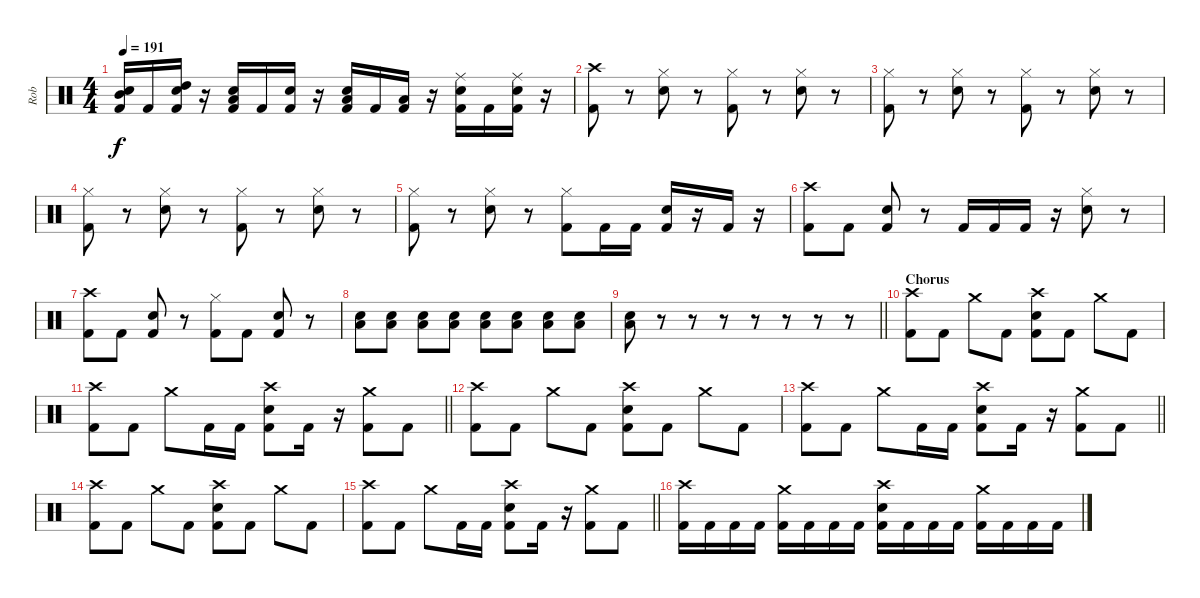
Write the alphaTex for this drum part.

\track ("Rob" "Rob") {instrument percussion}
\staff {score}
\articulation defaults
\ts (4 4)
\tempo 191
\clef neutral
\ks c
("Kick (hit) 2" "Snare (hit) 2" "Mid Tom (hit)").16{dy f} "Kick (hit) 2".16 ("Kick (hit) 2" "Snare (hit) 2" "High Tom (hit)").16 r.16 ("Kick (hit) 2" "Snare (hit) 2" "Low Tom (hit)").16 "Kick (hit) 2".16 ("Kick (hit) 2" "Snare (hit) 2").16 r.16 ("Kick (hit) 2" "Snare (hit) 2" "Low Tom (hit)").16 "Kick (hit) 2".16 ("Kick (hit) 2" "Low Tom (hit)").16 r.16 ("Kick (hit) 2" "Ride (middle)" "Snare (hit) 2").16 "Kick (hit) 2".16 ("Kick (hit) 2" "Ride (middle)" "Snare (hit) 2").16 r.16 |
("Crash high (hit)" "Kick (hit) 2").8 r.8 ("Hi-Hat (closed)" "Snare (hit) 2").8 r.8 ("Hi-Hat (closed)" "Kick (hit) 2").8 r.8 ("Hi-Hat (closed)" "Snare (hit) 2").8 r.8 |
("Hi-Hat (closed)" "Kick (hit) 2").8 r.8 ("Hi-Hat (closed)" "Snare (hit) 2").8 r.8 ("Hi-Hat (closed)" "Kick (hit) 2").8 r.8 ("Hi-Hat (closed)" "Snare (hit) 2").8 r.8 |
("Hi-Hat (closed)" "Kick (hit) 2").8 r.8 ("Hi-Hat (closed)" "Snare (hit) 2").8 r.8 ("Hi-Hat (closed)" "Kick (hit) 2").8 r.8 ("Hi-Hat (closed)" "Snare (hit) 2").8 r.8 |
("Hi-Hat (closed)" "Kick (hit) 2").8 r.8 ("Hi-Hat (closed)" "Snare (hit) 2").8 r.8 ("Hi-Hat (closed)" "Kick (hit) 2").8 "Kick (hit) 2".16 "Kick (hit) 2".16 ("Kick (hit) 2" "Snare (hit) 2").16 r.16 "Kick (hit) 2".16 r.16 |
("Crash high (hit)" "Kick (hit) 2").8 "Kick (hit) 2".8 ("Snare (hit) 2" "Kick (hit) 2").8 r.8 "Kick (hit) 2".16 "Kick (hit) 2".16 "Kick (hit) 2".16 r.16 ("Hi-Hat (closed)" "Snare (hit) 2").8 r.8 |
("Crash high (hit)" "Kick (hit) 2").8 "Kick (hit) 2".8 ("Snare (hit) 2" "Kick (hit) 2").8 r.8 ("Hi-Hat (closed)" "Kick (hit) 2").8 "Kick (hit) 2".8 ("Snare (hit) 2" "Kick (hit) 2").8 r.8 |
("Snare (hit) 2" "Low Tom (hit)").8 ("Snare (hit) 2" "Low Tom (hit)").8 ("Snare (hit) 2" "Low Tom (hit)").8 ("Snare (hit) 2" "Low Tom (hit)").8 ("Snare (hit) 2" "Low Tom (hit)").8 ("Snare (hit) 2" "Low Tom (hit)").8 ("Snare (hit) 2" "Low Tom (hit)").8 ("Snare (hit) 2" "Low Tom (hit)").8 |
\barLineRight lightlight
("Snare (hit) 2" "Low Tom (hit)").8 r.8 r.8 r.8 r.8 r.8 r.8 r.8 |
\section ("" "Chorus")
("Crash high (hit)" "Kick (hit) 2").8 "Kick (hit) 2".8 "Crash medium (hit)".8 "Kick (hit) 2".8 ("Snare (hit) 2" "Kick (hit) 2" "Crash high (hit)").8 "Kick (hit) 2".8 "Crash medium (hit)".8 "Kick (hit) 2".8 |
\barLineRight lightlight
("Crash high (hit)" "Kick (hit) 2").8 "Kick (hit) 2".8 "Crash medium (hit)".8 "Kick (hit) 2".16 "Kick (hit) 2".16 ("Crash high (hit)" "Kick (hit) 2" "Snare (hit) 2").8 "Kick (hit) 2".16 r.16 ("Crash medium (hit)" "Kick (hit) 2").8 "Kick (hit) 2".8 |
("Crash high (hit)" "Kick (hit) 2").8 "Kick (hit) 2".8 "Crash medium (hit)".8 "Kick (hit) 2".8 ("Snare (hit) 2" "Kick (hit) 2" "Crash high (hit)").8 "Kick (hit) 2".8 "Crash medium (hit)".8 "Kick (hit) 2".8 |
\barLineRight lightlight
("Crash high (hit)" "Kick (hit) 2").8 "Kick (hit) 2".8 "Crash medium (hit)".8 "Kick (hit) 2".16 "Kick (hit) 2".16 ("Crash high (hit)" "Kick (hit) 2" "Snare (hit) 2").8 "Kick (hit) 2".16 r.16 ("Crash medium (hit)" "Kick (hit) 2").8 "Kick (hit) 2".8 |
("Crash high (hit)" "Kick (hit) 2").8 "Kick (hit) 2".8 "Crash medium (hit)".8 "Kick (hit) 2".8 ("Snare (hit) 2" "Kick (hit) 2" "Crash high (hit)").8 "Kick (hit) 2".8 "Crash medium (hit)".8 "Kick (hit) 2".8 |
\barLineRight lightlight
("Crash high (hit)" "Kick (hit) 2").8 "Kick (hit) 2".8 "Crash medium (hit)".8 "Kick (hit) 2".16 "Kick (hit) 2".16 ("Crash high (hit)" "Kick (hit) 2" "Snare (hit) 2").8 "Kick (hit) 2".16 r.16 ("Crash medium (hit)" "Kick (hit) 2").8 "Kick (hit) 2".8 |
("Kick (hit) 2" "Crash high (hit)").16 "Kick (hit) 2".16 "Kick (hit) 2".16 "Kick (hit) 2".16 ("Kick (hit) 2" "Crash medium (hit)").16 "Kick (hit) 2".16 "Kick (hit) 2".16 "Kick (hit) 2".16 ("Kick (hit) 2" "Crash high (hit)" "Snare (hit) 2").16 "Kick (hit) 2".16 "Kick (hit) 2".16 "Kick (hit) 2".16 ("Kick (hit) 2" "Crash medium (hit)").16 "Kick (hit) 2".16 "Kick (hit) 2".16 "Kick (hit) 2".16
